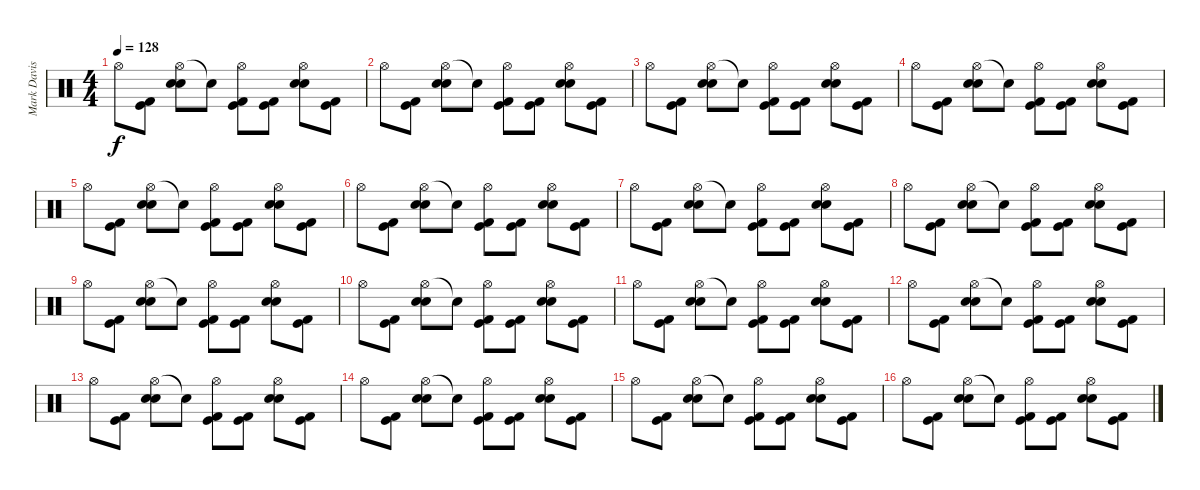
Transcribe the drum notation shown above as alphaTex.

\track ("Mark Davis (drums)" "Mark Davis") {instrument percussion}
\staff {score}
\articulation defaults
\ts (4 4)
\tempo 128
\clef neutral
\ks c "Hi-Hat (open)".8{dy f}
("Kick (hit)" "Kick (hit) 2").8 ("Hi-Hat (open)" "Snare (hit) 2" "Electric Snare (hit)").8 "Snare (hit)"{t}.8 ("Hi-Hat (open)" "Kick (hit)" "Kick (hit) 2").8 ("Kick (hit)" "Kick (hit) 2").8 ("Hi-Hat (open)" "Snare (hit) 2" "Electric Snare (hit)").8 ("Kick (hit)" "Kick (hit) 2").8 |
"Hi-Hat (open)".8 ("Kick (hit)" "Kick (hit) 2").8 ("Hi-Hat (open)" "Snare (hit) 2" "Electric Snare (hit)").8 "Snare (hit)"{t}.8 ("Hi-Hat (open)" "Kick (hit)" "Kick (hit) 2").8 ("Kick (hit)" "Kick (hit) 2").8 ("Hi-Hat (open)" "Snare (hit) 2" "Electric Snare (hit)").8 ("Kick (hit)" "Kick (hit) 2").8 |
"Hi-Hat (open)".8 ("Kick (hit)" "Kick (hit) 2").8 ("Hi-Hat (open)" "Snare (hit) 2" "Electric Snare (hit)").8 "Snare (hit)"{t}.8 ("Hi-Hat (open)" "Kick (hit)" "Kick (hit) 2").8 ("Kick (hit)" "Kick (hit) 2").8 ("Hi-Hat (open)" "Snare (hit) 2" "Electric Snare (hit)").8 ("Kick (hit)" "Kick (hit) 2").8 |
"Hi-Hat (open)".8 ("Kick (hit)" "Kick (hit) 2").8 ("Hi-Hat (open)" "Snare (hit) 2" "Electric Snare (hit)").8 "Snare (hit)"{t}.8 ("Hi-Hat (open)" "Kick (hit)" "Kick (hit) 2").8 ("Kick (hit)" "Kick (hit) 2").8 ("Hi-Hat (open)" "Snare (hit) 2" "Electric Snare (hit)").8 ("Kick (hit)" "Kick (hit) 2").8 |
"Hi-Hat (open)".8 ("Kick (hit)" "Kick (hit) 2").8 ("Hi-Hat (open)" "Snare (hit) 2" "Electric Snare (hit)").8 "Snare (hit)"{t}.8 ("Hi-Hat (open)" "Kick (hit)" "Kick (hit) 2").8 ("Kick (hit)" "Kick (hit) 2").8 ("Hi-Hat (open)" "Snare (hit) 2" "Electric Snare (hit)").8 ("Kick (hit)" "Kick (hit) 2").8 |
"Hi-Hat (open)".8 ("Kick (hit)" "Kick (hit) 2").8 ("Hi-Hat (open)" "Snare (hit) 2" "Electric Snare (hit)").8 "Snare (hit)"{t}.8 ("Hi-Hat (open)" "Kick (hit)" "Kick (hit) 2").8 ("Kick (hit)" "Kick (hit) 2").8 ("Hi-Hat (open)" "Snare (hit) 2" "Electric Snare (hit)").8 ("Kick (hit)" "Kick (hit) 2").8 |
"Hi-Hat (open)".8 ("Kick (hit)" "Kick (hit) 2").8 ("Hi-Hat (open)" "Snare (hit) 2" "Electric Snare (hit)").8 "Snare (hit)"{t}.8 ("Hi-Hat (open)" "Kick (hit)" "Kick (hit) 2").8 ("Kick (hit)" "Kick (hit) 2").8 ("Hi-Hat (open)" "Snare (hit) 2" "Electric Snare (hit)").8 ("Kick (hit)" "Kick (hit) 2").8 |
"Hi-Hat (open)".8 ("Kick (hit)" "Kick (hit) 2").8 ("Hi-Hat (open)" "Snare (hit) 2" "Electric Snare (hit)").8 "Snare (hit)"{t}.8 ("Hi-Hat (open)" "Kick (hit)" "Kick (hit) 2").8 ("Kick (hit)" "Kick (hit) 2").8 ("Hi-Hat (open)" "Snare (hit) 2" "Electric Snare (hit)").8 ("Kick (hit)" "Kick (hit) 2").8 |
"Hi-Hat (open)".8 ("Kick (hit)" "Kick (hit) 2").8 ("Hi-Hat (open)" "Snare (hit) 2" "Electric Snare (hit)").8 "Snare (hit)"{t}.8 ("Hi-Hat (open)" "Kick (hit)" "Kick (hit) 2").8 ("Kick (hit)" "Kick (hit) 2").8 ("Hi-Hat (open)" "Snare (hit) 2" "Electric Snare (hit)").8 ("Kick (hit)" "Kick (hit) 2").8 |
"Hi-Hat (open)".8 ("Kick (hit)" "Kick (hit) 2").8 ("Hi-Hat (open)" "Snare (hit) 2" "Electric Snare (hit)").8 "Snare (hit)"{t}.8 ("Hi-Hat (open)" "Kick (hit)" "Kick (hit) 2").8 ("Kick (hit)" "Kick (hit) 2").8 ("Hi-Hat (open)" "Snare (hit) 2" "Electric Snare (hit)").8 ("Kick (hit)" "Kick (hit) 2").8 |
"Hi-Hat (open)".8 ("Kick (hit)" "Kick (hit) 2").8 ("Hi-Hat (open)" "Snare (hit) 2" "Electric Snare (hit)").8 "Snare (hit)"{t}.8 ("Hi-Hat (open)" "Kick (hit)" "Kick (hit) 2").8 ("Kick (hit)" "Kick (hit) 2").8 ("Hi-Hat (open)" "Snare (hit) 2" "Electric Snare (hit)").8 ("Kick (hit)" "Kick (hit) 2").8 |
"Hi-Hat (open)".8 ("Kick (hit)" "Kick (hit) 2").8 ("Hi-Hat (open)" "Snare (hit) 2" "Electric Snare (hit)").8 "Snare (hit)"{t}.8 ("Hi-Hat (open)" "Kick (hit)" "Kick (hit) 2").8 ("Kick (hit)" "Kick (hit) 2").8 ("Hi-Hat (open)" "Snare (hit) 2" "Electric Snare (hit)").8 ("Kick (hit)" "Kick (hit) 2").8 |
"Hi-Hat (open)".8 ("Kick (hit)" "Kick (hit) 2").8 ("Hi-Hat (open)" "Snare (hit) 2" "Electric Snare (hit)").8 "Snare (hit)"{t}.8 ("Hi-Hat (open)" "Kick (hit)" "Kick (hit) 2").8 ("Kick (hit)" "Kick (hit) 2").8 ("Hi-Hat (open)" "Snare (hit) 2" "Electric Snare (hit)").8 ("Kick (hit)" "Kick (hit) 2").8 |
"Hi-Hat (open)".8 ("Kick (hit)" "Kick (hit) 2").8 ("Hi-Hat (open)" "Snare (hit) 2" "Electric Snare (hit)").8 "Snare (hit)"{t}.8 ("Hi-Hat (open)" "Kick (hit)" "Kick (hit) 2").8 ("Kick (hit)" "Kick (hit) 2").8 ("Hi-Hat (open)" "Snare (hit) 2" "Electric Snare (hit)").8 ("Kick (hit)" "Kick (hit) 2").8 |
"Hi-Hat (open)".8 ("Kick (hit)" "Kick (hit) 2").8 ("Hi-Hat (open)" "Snare (hit) 2" "Electric Snare (hit)").8 "Snare (hit)"{t}.8 ("Hi-Hat (open)" "Kick (hit)" "Kick (hit) 2").8 ("Kick (hit)" "Kick (hit) 2").8 ("Hi-Hat (open)" "Snare (hit) 2" "Electric Snare (hit)").8 ("Kick (hit)" "Kick (hit) 2").8 |
"Hi-Hat (open)".8 ("Kick (hit)" "Kick (hit) 2").8 ("Hi-Hat (open)" "Snare (hit) 2" "Electric Snare (hit)").8 "Snare (hit)"{t}.8 ("Hi-Hat (open)" "Kick (hit)" "Kick (hit) 2").8 ("Kick (hit)" "Kick (hit) 2").8 ("Hi-Hat (open)" "Snare (hit) 2" "Electric Snare (hit)").8 ("Kick (hit)" "Kick (hit) 2").8
